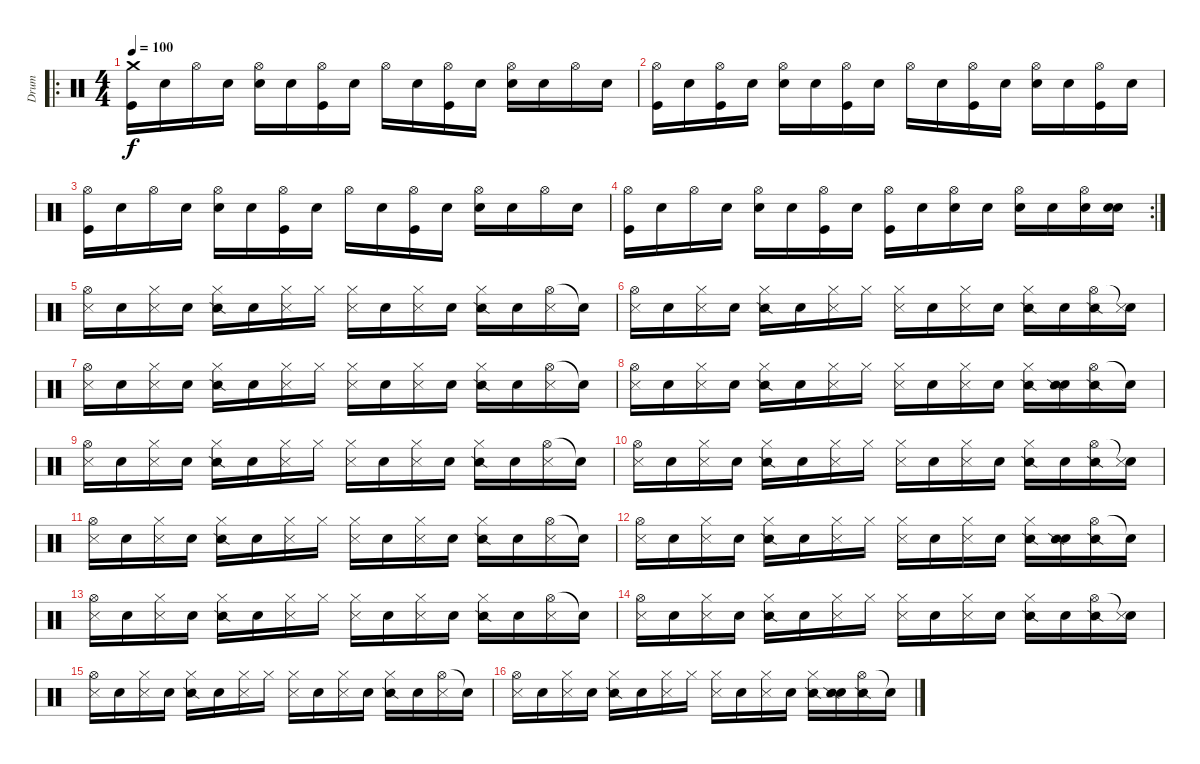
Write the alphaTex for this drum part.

\track ("Drum" "Drum") {instrument percussion}
\staff {score}
\articulation defaults
\ro
\ts (4 4)
\tempo 100
\clef neutral
\ks c
("Crash medium (hit)" "Kick (hit)").16{dy f} "Snare (hit)".16 "Hi-Hat (open)".16 "Snare (hit)".16 ("Hi-Hat (open)" "Electric Snare (hit)").16 "Snare (hit)".16 ("Hi-Hat (open)" "Kick (hit)").16 "Snare (hit)".16 "Hi-Hat (open)".16 "Snare (hit)".16 ("Hi-Hat (open)" "Kick (hit)").16 "Snare (hit)".16 ("Hi-Hat (open)" "Electric Snare (hit)").16 "Snare (hit)".16 "Hi-Hat (open)".16 "Snare (hit)".16 |
("Hi-Hat (open)" "Kick (hit)").16 "Snare (hit)".16 ("Hi-Hat (open)" "Kick (hit)").16 "Snare (hit)".16 ("Hi-Hat (open)" "Electric Snare (hit)").16 "Snare (hit)".16 ("Hi-Hat (open)" "Kick (hit)").16 "Snare (hit)".16 "Hi-Hat (open)".16 "Snare (hit)".16 ("Hi-Hat (open)" "Kick (hit)").16 "Snare (hit)".16 ("Hi-Hat (open)" "Electric Snare (hit)").16 "Snare (hit)".16 ("Hi-Hat (open)" "Kick (hit)").16 "Snare (hit)".16 |
("Hi-Hat (open)" "Kick (hit)").16 "Snare (hit)".16 "Hi-Hat (open)".16 "Snare (hit)".16 ("Hi-Hat (open)" "Electric Snare (hit)").16 "Snare (hit)".16 ("Hi-Hat (open)" "Kick (hit)").16 "Snare (hit)".16 "Hi-Hat (open)".16 "Snare (hit)".16 ("Hi-Hat (open)" "Kick (hit)").16 "Snare (hit)".16 ("Hi-Hat (open)" "Electric Snare (hit)").16 "Snare (hit)".16 "Hi-Hat (open)".16 "Snare (hit)".16 |
\rc 2
("Hi-Hat (open)" "Kick (hit)").16 "Snare (hit)".16 "Hi-Hat (open)".16 "Snare (hit)".16 ("Hi-Hat (open)" "Electric Snare (hit)").16 "Snare (hit)".16 ("Hi-Hat (open)" "Kick (hit)").16 "Snare (hit)".16 ("Hi-Hat (open)" "Kick (hit)").16 "Snare (hit)".16 ("Hi-Hat (open)" "Electric Snare (hit)").16 "Snare (hit)".16 ("Hi-Hat (open)" "Electric Snare (hit)").16 "Snare (hit)".16 ("Hi-Hat (open)" "Electric Snare (hit)").16 ("Snare (hit)" "Electric Snare (hit)").16 |
("Hi-Hat (open)" "Metronome (hit)").16 "Snare (hit)".16 ("Hi-Hat (closed)" "Metronome (hit)").16 "Snare (hit)".16 ("Hi-Hat (closed)" "Snare (side stick) 2").16 "Snare (hit)".16 ("Hi-Hat (closed)" "Metronome (hit)").16 "Hi-Hat (closed)".16 ("Hi-Hat (closed)" "Metronome (hit)").16 "Snare (hit)".16 ("Hi-Hat (closed)" "Metronome (hit)").16 "Snare (hit)".16 ("Hi-Hat (closed)" "Snare (side stick) 2").16 "Snare (hit)".16 ("Hi-Hat (open)" "Metronome (hit)").16 "Snare (hit)"{t}.16 |
("Hi-Hat (open)" "Metronome (hit)").16 "Snare (hit)".16 ("Hi-Hat (closed)" "Metronome (hit)").16 "Snare (hit)".16 ("Hi-Hat (closed)" "Snare (side stick) 2").16 "Snare (hit)".16 ("Hi-Hat (closed)" "Metronome (hit)").16 "Hi-Hat (closed)".16 ("Hi-Hat (closed)" "Metronome (hit)").16 "Snare (hit)".16 ("Hi-Hat (closed)" "Metronome (hit)").16 "Snare (hit)".16 ("Hi-Hat (closed)" "Snare (side stick) 2").16 "Snare (hit)".16 ("Hi-Hat (open)" "Snare (side stick) 2").16 ("Snare (hit)"{t} "Metronome (hit)").16 |
("Hi-Hat (open)" "Metronome (hit)").16 "Snare (hit)".16 ("Hi-Hat (closed)" "Metronome (hit)").16 "Snare (hit)".16 ("Hi-Hat (closed)" "Snare (side stick) 2").16 "Snare (hit)".16 ("Hi-Hat (closed)" "Metronome (hit)").16 "Hi-Hat (closed)".16 ("Hi-Hat (closed)" "Metronome (hit)").16 "Snare (hit)".16 ("Hi-Hat (closed)" "Metronome (hit)").16 "Snare (hit)".16 ("Hi-Hat (closed)" "Snare (side stick) 2").16 "Snare (hit)".16 ("Hi-Hat (open)" "Metronome (hit)").16 "Snare (hit)"{t}.16 |
("Hi-Hat (open)" "Metronome (hit)").16 "Snare (hit)".16 ("Hi-Hat (closed)" "Metronome (hit)").16 "Snare (hit)".16 ("Hi-Hat (closed)" "Snare (side stick) 2").16 "Snare (hit)".16 ("Hi-Hat (closed)" "Metronome (hit)").16 "Hi-Hat (closed)".16 ("Hi-Hat (closed)" "Metronome (hit)").16 "Snare (hit)".16 ("Hi-Hat (closed)" "Metronome (hit)").16 "Snare (hit)".16 ("Hi-Hat (closed)" "Snare (side stick) 2").16 ("Snare (hit)" "Snare (side stick) 2").16 ("Hi-Hat (open)" "Snare (side stick) 2").16 "Snare (hit)"{t}.16 |
("Hi-Hat (open)" "Metronome (hit)").16 "Snare (hit)".16 ("Hi-Hat (closed)" "Metronome (hit)").16 "Snare (hit)".16 ("Hi-Hat (closed)" "Snare (side stick) 2").16 "Snare (hit)".16 ("Hi-Hat (closed)" "Metronome (hit)").16 "Hi-Hat (closed)".16 ("Hi-Hat (closed)" "Metronome (hit)").16 "Snare (hit)".16 ("Hi-Hat (closed)" "Metronome (hit)").16 "Snare (hit)".16 ("Hi-Hat (closed)" "Snare (side stick) 2").16 "Snare (hit)".16 ("Hi-Hat (open)" "Metronome (hit)").16 "Snare (hit)"{t}.16 |
("Hi-Hat (open)" "Metronome (hit)").16 "Snare (hit)".16 ("Hi-Hat (closed)" "Metronome (hit)").16 "Snare (hit)".16 ("Hi-Hat (closed)" "Snare (side stick) 2").16 "Snare (hit)".16 ("Hi-Hat (closed)" "Metronome (hit)").16 "Hi-Hat (closed)".16 ("Hi-Hat (closed)" "Metronome (hit)").16 "Snare (hit)".16 ("Hi-Hat (closed)" "Metronome (hit)").16 "Snare (hit)".16 ("Hi-Hat (closed)" "Snare (side stick) 2").16 "Snare (hit)".16 ("Hi-Hat (open)" "Snare (side stick) 2").16 ("Snare (hit)"{t} "Metronome (hit)").16 |
("Hi-Hat (open)" "Metronome (hit)").16 "Snare (hit)".16 ("Hi-Hat (closed)" "Metronome (hit)").16 "Snare (hit)".16 ("Hi-Hat (closed)" "Snare (side stick) 2").16 "Snare (hit)".16 ("Hi-Hat (closed)" "Metronome (hit)").16 "Hi-Hat (closed)".16 ("Hi-Hat (closed)" "Metronome (hit)").16 "Snare (hit)".16 ("Hi-Hat (closed)" "Metronome (hit)").16 "Snare (hit)".16 ("Hi-Hat (closed)" "Snare (side stick) 2").16 "Snare (hit)".16 ("Hi-Hat (open)" "Metronome (hit)").16 "Snare (hit)"{t}.16 |
("Hi-Hat (open)" "Metronome (hit)").16 "Snare (hit)".16 ("Hi-Hat (closed)" "Metronome (hit)").16 "Snare (hit)".16 ("Hi-Hat (closed)" "Snare (side stick) 2").16 "Snare (hit)".16 ("Hi-Hat (closed)" "Metronome (hit)").16 "Hi-Hat (closed)".16 ("Hi-Hat (closed)" "Metronome (hit)").16 "Snare (hit)".16 ("Hi-Hat (closed)" "Metronome (hit)").16 "Snare (hit)".16 ("Hi-Hat (closed)" "Snare (side stick) 2").16 ("Snare (hit)" "Snare (side stick) 2").16 ("Hi-Hat (open)" "Snare (side stick) 2").16 "Snare (hit)"{t}.16 |
("Hi-Hat (open)" "Metronome (hit)").16 "Snare (hit)".16 ("Hi-Hat (closed)" "Metronome (hit)").16 "Snare (hit)".16 ("Hi-Hat (closed)" "Snare (side stick) 2").16 "Snare (hit)".16 ("Hi-Hat (closed)" "Metronome (hit)").16 "Hi-Hat (closed)".16 ("Hi-Hat (closed)" "Metronome (hit)").16 "Snare (hit)".16 ("Hi-Hat (closed)" "Metronome (hit)").16 "Snare (hit)".16 ("Hi-Hat (closed)" "Snare (side stick) 2").16 "Snare (hit)".16 ("Hi-Hat (open)" "Metronome (hit)").16 "Snare (hit)"{t}.16 |
("Hi-Hat (open)" "Metronome (hit)").16 "Snare (hit)".16 ("Hi-Hat (closed)" "Metronome (hit)").16 "Snare (hit)".16 ("Hi-Hat (closed)" "Snare (side stick) 2").16 "Snare (hit)".16 ("Hi-Hat (closed)" "Metronome (hit)").16 "Hi-Hat (closed)".16 ("Hi-Hat (closed)" "Metronome (hit)").16 "Snare (hit)".16 ("Hi-Hat (closed)" "Metronome (hit)").16 "Snare (hit)".16 ("Hi-Hat (closed)" "Snare (side stick) 2").16 "Snare (hit)".16 ("Hi-Hat (open)" "Snare (side stick) 2").16 ("Snare (hit)"{t} "Metronome (hit)").16 |
("Hi-Hat (open)" "Metronome (hit)").16 "Snare (hit)".16 ("Hi-Hat (closed)" "Metronome (hit)").16 "Snare (hit)".16 ("Hi-Hat (closed)" "Snare (side stick) 2").16 "Snare (hit)".16 ("Hi-Hat (closed)" "Metronome (hit)").16 "Hi-Hat (closed)".16 ("Hi-Hat (closed)" "Metronome (hit)").16 "Snare (hit)".16 ("Hi-Hat (closed)" "Metronome (hit)").16 "Snare (hit)".16 ("Hi-Hat (closed)" "Snare (side stick) 2").16 "Snare (hit)".16 ("Hi-Hat (open)" "Metronome (hit)").16 "Snare (hit)"{t}.16 |
("Hi-Hat (open)" "Metronome (hit)").16 "Snare (hit)".16 ("Hi-Hat (closed)" "Metronome (hit)").16 "Snare (hit)".16 ("Hi-Hat (closed)" "Snare (side stick) 2").16 "Snare (hit)".16 ("Hi-Hat (closed)" "Metronome (hit)").16 "Hi-Hat (closed)".16 ("Hi-Hat (closed)" "Metronome (hit)").16 "Snare (hit)".16 ("Hi-Hat (closed)" "Metronome (hit)").16 "Snare (hit)".16 ("Hi-Hat (closed)" "Snare (side stick) 2").16 ("Snare (hit)" "Snare (side stick) 2").16 ("Hi-Hat (open)" "Snare (side stick) 2").16 "Snare (hit)"{t}.16
